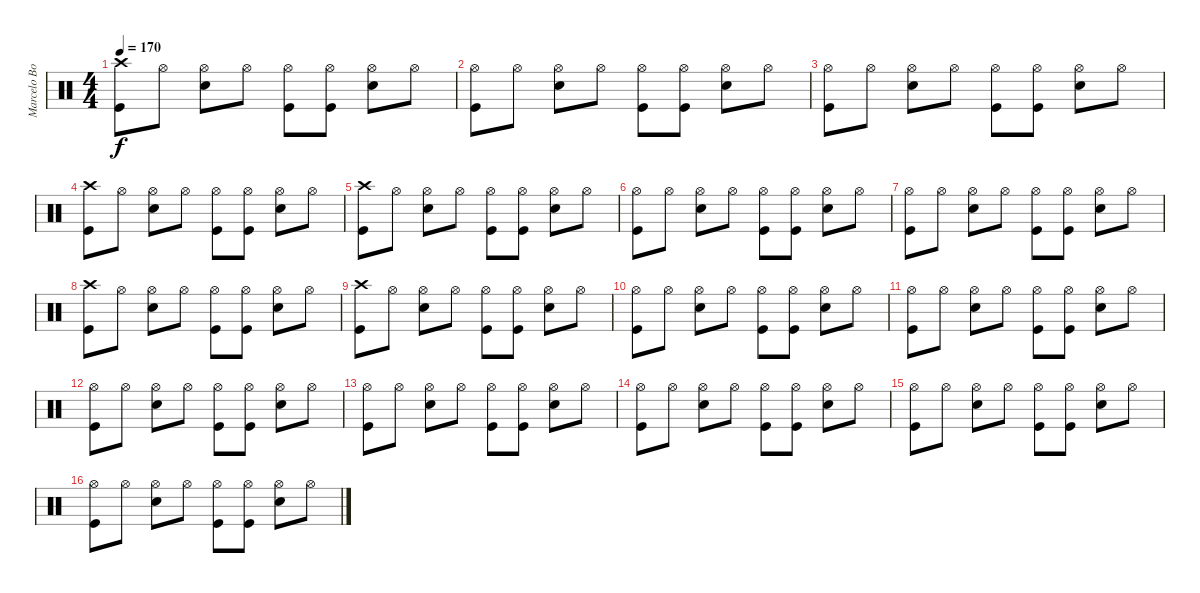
\track ("Marcelo Bonfá" "Marcelo Bo") {instrument percussion}
\staff {score}
\articulation defaults
\ts (4 4)
\tempo 170
\clef neutral
\ks c
("Crash high (hit)" "Kick (hit)").8{dy f} "Hi-Hat (open)".8 ("Hi-Hat (open)" "Snare (hit) 2").8 "Hi-Hat (open)".8 ("Hi-Hat (open)" "Kick (hit)").8 ("Hi-Hat (open)" "Kick (hit)").8 ("Hi-Hat (open)" "Snare (hit) 2").8 "Hi-Hat (open)".8 |
("Hi-Hat (open)" "Kick (hit)").8 "Hi-Hat (open)".8 ("Hi-Hat (open)" "Snare (hit) 2").8 "Hi-Hat (open)".8 ("Hi-Hat (open)" "Kick (hit)").8 ("Hi-Hat (open)" "Kick (hit)").8 ("Hi-Hat (open)" "Snare (hit) 2").8 "Hi-Hat (open)".8 |
("Hi-Hat (open)" "Kick (hit)").8 "Hi-Hat (open)".8 ("Hi-Hat (open)" "Snare (hit) 2").8 "Hi-Hat (open)".8 ("Hi-Hat (open)" "Kick (hit)").8 ("Hi-Hat (open)" "Kick (hit)").8 ("Hi-Hat (open)" "Snare (hit) 2").8 "Hi-Hat (open)".8 |
("Crash high (hit)" "Kick (hit)").8 "Hi-Hat (open)".8 ("Hi-Hat (open)" "Snare (hit) 2").8 "Hi-Hat (open)".8 ("Hi-Hat (open)" "Kick (hit)").8 ("Hi-Hat (open)" "Kick (hit)").8 ("Hi-Hat (open)" "Snare (hit) 2").8 "Hi-Hat (open)".8 |
("Crash high (hit)" "Kick (hit)").8 "Hi-Hat (open)".8 ("Hi-Hat (open)" "Snare (hit) 2").8 "Hi-Hat (open)".8 ("Hi-Hat (open)" "Kick (hit)").8 ("Hi-Hat (open)" "Kick (hit)").8 ("Hi-Hat (open)" "Snare (hit) 2").8 "Hi-Hat (open)".8 |
("Hi-Hat (open)" "Kick (hit)").8 "Hi-Hat (open)".8 ("Hi-Hat (open)" "Snare (hit) 2").8 "Hi-Hat (open)".8 ("Hi-Hat (open)" "Kick (hit)").8 ("Hi-Hat (open)" "Kick (hit)").8 ("Hi-Hat (open)" "Snare (hit) 2").8 "Hi-Hat (open)".8 |
("Hi-Hat (open)" "Kick (hit)").8 "Hi-Hat (open)".8 ("Hi-Hat (open)" "Snare (hit) 2").8 "Hi-Hat (open)".8 ("Hi-Hat (open)" "Kick (hit)").8 ("Hi-Hat (open)" "Kick (hit)").8 ("Hi-Hat (open)" "Snare (hit) 2").8 "Hi-Hat (open)".8 |
("Crash high (hit)" "Kick (hit)").8 "Hi-Hat (open)".8 ("Hi-Hat (open)" "Snare (hit) 2").8 "Hi-Hat (open)".8 ("Hi-Hat (open)" "Kick (hit)").8 ("Hi-Hat (open)" "Kick (hit)").8 ("Hi-Hat (open)" "Snare (hit) 2").8 "Hi-Hat (open)".8 |
("Crash high (hit)" "Kick (hit)").8 "Hi-Hat (open)".8 ("Hi-Hat (open)" "Snare (hit) 2").8 "Hi-Hat (open)".8 ("Hi-Hat (open)" "Kick (hit)").8 ("Hi-Hat (open)" "Kick (hit)").8 ("Hi-Hat (open)" "Snare (hit) 2").8 "Hi-Hat (open)".8 |
("Hi-Hat (open)" "Kick (hit)").8 "Hi-Hat (open)".8 ("Hi-Hat (open)" "Snare (hit) 2").8 "Hi-Hat (open)".8 ("Hi-Hat (open)" "Kick (hit)").8 ("Hi-Hat (open)" "Kick (hit)").8 ("Hi-Hat (open)" "Snare (hit) 2").8 "Hi-Hat (open)".8 |
("Hi-Hat (open)" "Kick (hit)").8 "Hi-Hat (open)".8 ("Hi-Hat (open)" "Snare (hit) 2").8 "Hi-Hat (open)".8 ("Hi-Hat (open)" "Kick (hit)").8 ("Hi-Hat (open)" "Kick (hit)").8 ("Hi-Hat (open)" "Snare (hit) 2").8 "Hi-Hat (open)".8 |
("Hi-Hat (open)" "Kick (hit)").8 "Hi-Hat (open)".8 ("Hi-Hat (open)" "Snare (hit) 2").8 "Hi-Hat (open)".8 ("Hi-Hat (open)" "Kick (hit)").8 ("Hi-Hat (open)" "Kick (hit)").8 ("Hi-Hat (open)" "Snare (hit) 2").8 "Hi-Hat (open)".8 |
("Hi-Hat (open)" "Kick (hit)").8 "Hi-Hat (open)".8 ("Hi-Hat (open)" "Snare (hit) 2").8 "Hi-Hat (open)".8 ("Hi-Hat (open)" "Kick (hit)").8 ("Hi-Hat (open)" "Kick (hit)").8 ("Hi-Hat (open)" "Snare (hit) 2").8 "Hi-Hat (open)".8 |
("Hi-Hat (open)" "Kick (hit)").8 "Hi-Hat (open)".8 ("Hi-Hat (open)" "Snare (hit) 2").8 "Hi-Hat (open)".8 ("Hi-Hat (open)" "Kick (hit)").8 ("Hi-Hat (open)" "Kick (hit)").8 ("Hi-Hat (open)" "Snare (hit) 2").8 "Hi-Hat (open)".8 |
("Hi-Hat (open)" "Kick (hit)").8 "Hi-Hat (open)".8 ("Hi-Hat (open)" "Snare (hit) 2").8 "Hi-Hat (open)".8 ("Hi-Hat (open)" "Kick (hit)").8 ("Hi-Hat (open)" "Kick (hit)").8 ("Hi-Hat (open)" "Snare (hit) 2").8 "Hi-Hat (open)".8 |
("Hi-Hat (open)" "Kick (hit)").8 "Hi-Hat (open)".8 ("Hi-Hat (open)" "Snare (hit) 2").8 "Hi-Hat (open)".8 ("Hi-Hat (open)" "Kick (hit)").8 ("Hi-Hat (open)" "Kick (hit)").8 ("Hi-Hat (open)" "Snare (hit) 2").8 "Hi-Hat (open)".8
